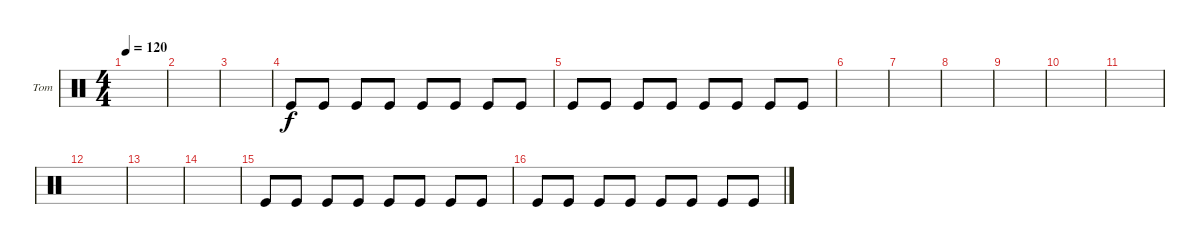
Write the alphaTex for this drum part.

\defaultSystemsLayout 4
\bracketExtendMode groupsimilarinstruments
\firstSystemTrackNameOrientation horizontal
\otherSystemsTrackNameOrientation horizontal
\track ("Melodic Tom" "Tom") {instrument percussion}
\staff {score}
\articulation defaults
\ts (4 4)
\tempo 120
\clef neutral
\scale
0.333333
\ks c
|
\scale
0.333333 |
\scale
0.333333 |
\scale
0.333333 "Kick (hit)".8 "Kick (hit)".8 "Kick (hit)".8 "Kick (hit)".8 "Kick (hit)".8 "Kick (hit)".8 "Kick (hit)".8 "Kick (hit)".8 |
\scale
0.333333 "Kick (hit)".8 "Kick (hit)".8 "Kick (hit)".8 "Kick (hit)".8 "Kick (hit)".8 "Kick (hit)".8 "Kick (hit)".8 "Kick (hit)".8 |
\scale
0.333333 |
\scale
0.333333 |
\scale
0.333333 |
\scale
0.333333 |
\scale
0.333333 |
\scale
0.333333 |
\scale
0.333333 |
\scale
0.333333 |
\scale
0.333333 |
\scale
0.333333 "Kick (hit)".8 "Kick (hit)".8 "Kick (hit)".8 "Kick (hit)".8 "Kick (hit)".8 "Kick (hit)".8 "Kick (hit)".8 "Kick (hit)".8 |
\scale
0.333333 "Kick (hit)".8 "Kick (hit)".8 "Kick (hit)".8 "Kick (hit)".8 "Kick (hit)".8 "Kick (hit)".8 "Kick (hit)".8 "Kick (hit)".8
